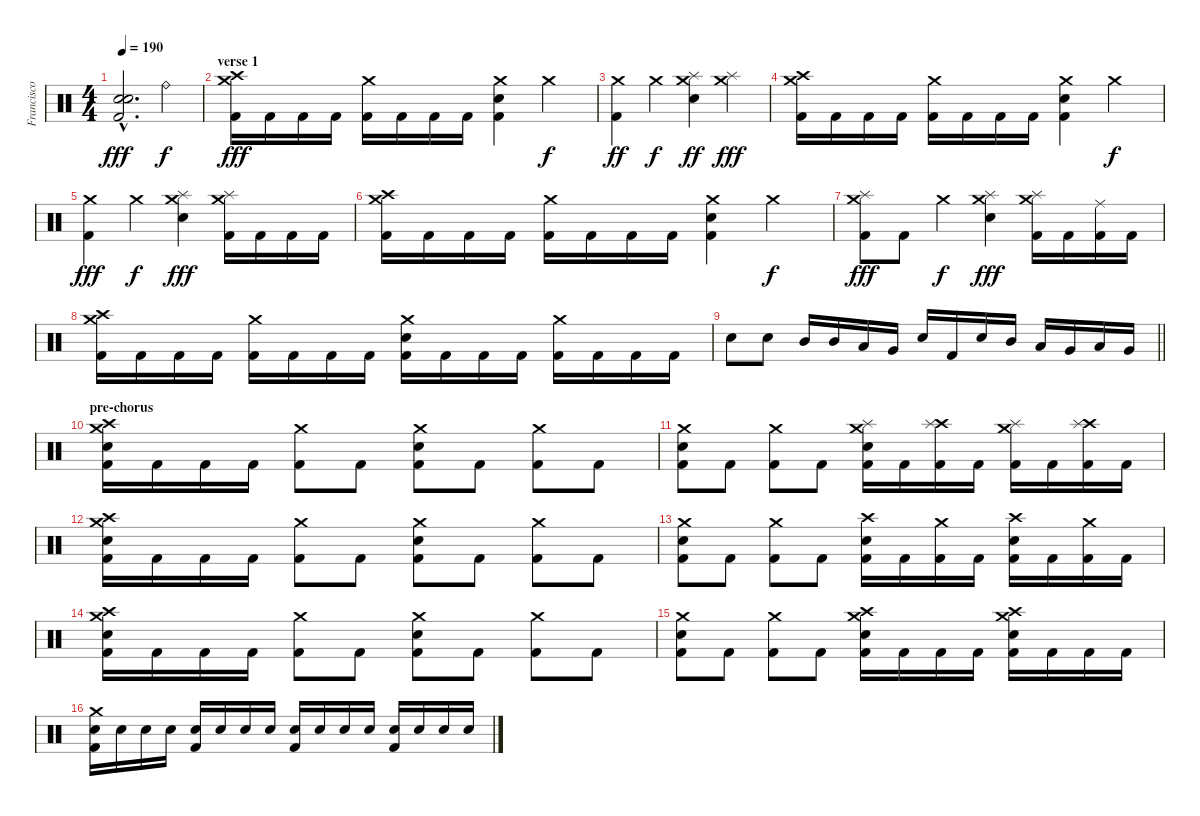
\track ("Francisco Izquierdo (Percusión)" "Francisco ") {instrument percussion}
\staff {score}
\articulation defaults
\ts (4 4)
\tempo 190
\clef neutral
\ks c
("Snare (hit) 2"{hac} "Electric Snare (hit)"{hac} "Kick (hit) 2"{hac}).2{d dy fff} "Ride (bell)".4{dy f} |
\section ("" "verse 1")
("Crash medium (hit)" "Crash high (hit)" "Kick (hit) 2").16{dy fff} "Kick (hit) 2".16 "Kick (hit) 2".16 "Kick (hit) 2".16 ("Crash medium (hit)" "Kick (hit) 2").16 "Kick (hit) 2".16 "Kick (hit) 2".16 "Kick (hit) 2".16 ("Crash medium (hit)" "Electric Snare (hit)" "Kick (hit) 2").4 "Crash medium (hit)".4{dy f} |
("Crash medium (hit)" "Kick (hit) 2").4{dy ff} "Crash medium (hit)".4{dy f} ("Splash (hit)" "Crash medium (hit)" "Electric Snare (hit)").4{dy ff} ("Splash (hit)" "Crash medium (hit)").4{dy fff} |
("Crash medium (hit)" "Crash high (hit)" "Kick (hit) 2").16 "Kick (hit) 2".16 "Kick (hit) 2".16 "Kick (hit) 2".16 ("Crash medium (hit)" "Kick (hit) 2").16 "Kick (hit) 2".16 "Kick (hit) 2".16 "Kick (hit) 2".16 ("Crash medium (hit)" "Electric Snare (hit)" "Kick (hit) 2").4 "Crash medium (hit)".4{dy f} |
("Crash medium (hit)" "Kick (hit) 2").4{dy fff} "Crash medium (hit)".4{dy f} ("Splash (hit)" "Crash medium (hit)" "Electric Snare (hit)").4{dy fff} ("Splash (hit)" "Crash medium (hit)" "Kick (hit) 2").16 "Kick (hit) 2".16 "Kick (hit) 2".16 "Kick (hit) 2".16 |
("Crash medium (hit)" "Crash high (hit)" "Kick (hit) 2").16 "Kick (hit) 2".16 "Kick (hit) 2".16 "Kick (hit) 2".16 ("Crash medium (hit)" "Kick (hit) 2").16 "Kick (hit) 2".16 "Kick (hit) 2".16 "Kick (hit) 2".16 ("Crash medium (hit)" "Electric Snare (hit)" "Kick (hit) 2").4 "Crash medium (hit)".4{dy f} |
("Splash (hit)" "Crash medium (hit)" "Kick (hit) 2").8{dy fff} "Kick (hit) 2".8 "Crash medium (hit)".4{dy f} ("Splash (hit)" "Crash medium (hit)" "Electric Snare (hit)").4{dy fff} ("Splash (hit)" "Crash medium (hit)" "Kick (hit) 2").16 "Kick (hit) 2".16 ("Ride (middle)" "Kick (hit) 2").16 "Kick (hit) 2".16 |
("Crash high (hit)" "Crash medium (hit)" "Kick (hit) 2").16 "Kick (hit) 2".16 "Kick (hit) 2".16 "Kick (hit) 2".16 ("Crash medium (hit)" "Kick (hit) 2").16 "Kick (hit) 2".16 "Kick (hit) 2".16 "Kick (hit) 2".16 ("Crash medium (hit)" "Electric Snare (hit)" "Kick (hit) 2").16 "Kick (hit) 2".16 "Kick (hit) 2".16 "Kick (hit) 2".16 ("Crash medium (hit)" "Kick (hit) 2").16 "Kick (hit) 2".16 "Kick (hit) 2".16 "Kick (hit) 2".16 |
\barLineRight lightlight "Electric Snare (hit)".8 "Electric Snare (hit)".8 "Mid Tom (hit)".16 "Mid Tom (hit)".16 "Low Tom (hit)".16 "Very Low Tom (hit)".16 "Electric Snare (hit)".16 "Kick (hit) 2".16 "Electric Snare (hit)".16 "Mid Tom (hit)".16 "Low Tom (hit)".16 "Very Low Tom (hit)".16 "Low Tom (hit)".16 "Very Low Tom (hit)".16
|
\section ("" "pre-chorus")
("Crash medium (hit)" "Crash high (hit)" "Electric Snare (hit)" "Kick (hit) 2").16 "Kick (hit) 2".16 "Kick (hit) 2".16 "Kick (hit) 2".16 ("Crash medium (hit)" "Kick (hit) 2").8 "Kick (hit) 2".8 ("Crash medium (hit)" "Electric Snare (hit)" "Kick (hit) 2").8 "Kick (hit) 2".8 ("Crash medium (hit)" "Kick (hit) 2").8 "Kick (hit) 2".8 |
("Crash medium (hit)" "Electric Snare (hit)" "Kick (hit) 2").8 "Kick (hit) 2".8 ("Crash medium (hit)" "Kick (hit) 2").8 "Kick (hit) 2".8 ("Crash medium (hit)" "Splash (hit)" "Electric Snare (hit)" "Kick (hit) 2").16 "Kick (hit) 2".16 ("Crash high (hit)" "Splash (hit)" "Kick (hit) 2").16 "Kick (hit) 2".16 ("Crash medium (hit)" "Splash (hit)" "Kick (hit) 2").16 "Kick (hit) 2".16 ("Crash high (hit)" "Splash (hit)" "Kick (hit) 2").16 "Kick (hit) 2".16 |
("Crash medium (hit)" "Crash high (hit)" "Electric Snare (hit)" "Kick (hit) 2").16 "Kick (hit) 2".16 "Kick (hit) 2".16 "Kick (hit) 2".16 ("Crash medium (hit)" "Kick (hit) 2").8 "Kick (hit) 2".8 ("Crash medium (hit)" "Electric Snare (hit)" "Kick (hit) 2").8 "Kick (hit) 2".8 ("Crash medium (hit)" "Kick (hit) 2").8 "Kick (hit) 2".8 |
("Crash medium (hit)" "Electric Snare (hit)" "Kick (hit) 2").8 "Kick (hit) 2".8 ("Crash medium (hit)" "Kick (hit) 2").8 "Kick (hit) 2".8 ("Crash high (hit)" "Electric Snare (hit)" "Kick (hit) 2").16 "Kick (hit) 2".16 ("Crash medium (hit)" "Kick (hit) 2").16 "Kick (hit) 2".16 ("Crash high (hit)" "Electric Snare (hit)" "Kick (hit) 2").16 "Kick (hit) 2".16 ("Crash medium (hit)" "Kick (hit) 2").16 "Kick (hit) 2".16 |
("Crash medium (hit)" "Crash high (hit)" "Electric Snare (hit)" "Kick (hit) 2").16 "Kick (hit) 2".16 "Kick (hit) 2".16 "Kick (hit) 2".16 ("Crash medium (hit)" "Kick (hit) 2").8 "Kick (hit) 2".8 ("Crash medium (hit)" "Electric Snare (hit)" "Kick (hit) 2").8 "Kick (hit) 2".8 ("Crash medium (hit)" "Kick (hit) 2").8 "Kick (hit) 2".8 |
("Crash medium (hit)" "Electric Snare (hit)" "Kick (hit) 2").8 "Kick (hit) 2".8 ("Crash medium (hit)" "Kick (hit) 2").8 "Kick (hit) 2".8 ("Crash medium (hit)" "Crash high (hit)" "Electric Snare (hit)" "Kick (hit) 2").16 "Kick (hit) 2".16 "Kick (hit) 2".16 "Kick (hit) 2".16 ("Crash medium (hit)" "Crash high (hit)" "Electric Snare (hit)" "Kick (hit) 2").16 "Kick (hit) 2".16 "Kick (hit) 2".16 "Kick (hit) 2".16 |
("Crash medium (hit)" "Electric Snare (hit)" "Kick (hit) 2").16 "Electric Snare (hit)".16 "Electric Snare (hit)".16 "Electric Snare (hit)".16 ("Electric Snare (hit)" "Kick (hit) 2").16 "Electric Snare (hit)".16 "Electric Snare (hit)".16 "Electric Snare (hit)".16 ("Electric Snare (hit)" "Kick (hit) 2").16 "Electric Snare (hit)".16 "Electric Snare (hit)".16 "Electric Snare (hit)".16 ("Electric Snare (hit)" "Kick (hit) 2").16 "Electric Snare (hit)".16 "Electric Snare (hit)".16 "Electric Snare (hit)".16
